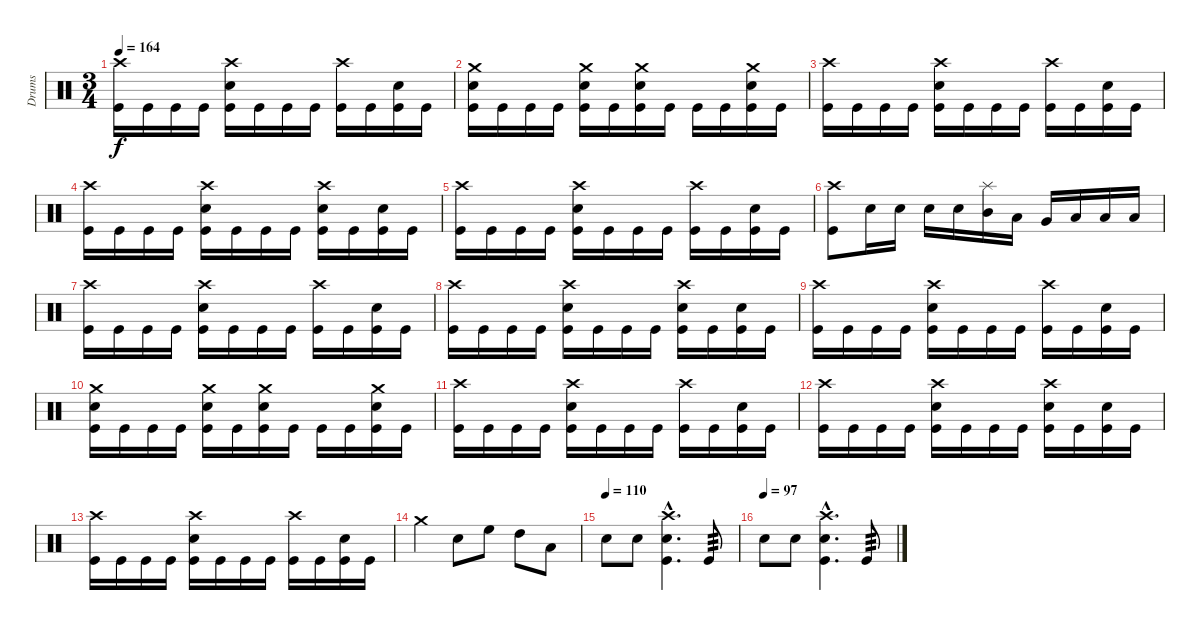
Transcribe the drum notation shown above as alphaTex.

\track ("Drums" "Drums") {instrument percussion}
\staff {score}
\articulation defaults
\ts (3 4)
\tempo 164
\clef neutral
\ks c
("Crash high (hit)" "Kick (hit)").16{dy f} "Kick (hit)".16 "Kick (hit)".16 "Kick (hit)".16 ("Crash high (hit)" "Snare (hit) 2" "Kick (hit)").16 "Kick (hit)".16 "Kick (hit)".16 "Kick (hit)".16 ("Crash high (hit)" "Kick (hit)").16 "Kick (hit)".16 ("Snare (hit) 2" "Kick (hit)").16 "Kick (hit)".16 |
("Crash medium (hit)" "Snare (hit) 2" "Kick (hit)").16 "Kick (hit)".16 "Kick (hit)".16 "Kick (hit)".16 ("Crash medium (hit)" "Snare (hit) 2" "Kick (hit)").16 "Kick (hit)".16 ("Crash medium (hit)" "Snare (hit) 2" "Kick (hit)").16 "Kick (hit)".16 "Kick (hit)".16 "Kick (hit)".16 ("Crash medium (hit)" "Snare (hit) 2" "Kick (hit)").16 "Kick (hit)".16 |
("Crash high (hit)" "Kick (hit)").16 "Kick (hit)".16 "Kick (hit)".16 "Kick (hit)".16 ("Crash high (hit)" "Snare (hit) 2" "Kick (hit)").16 "Kick (hit)".16 "Kick (hit)".16 "Kick (hit)".16 ("Crash high (hit)" "Kick (hit)").16 "Kick (hit)".16 ("Snare (hit) 2" "Kick (hit)").16 "Kick (hit)".16 |
("Crash high (hit)" "Kick (hit)").16 "Kick (hit)".16 "Kick (hit)".16 "Kick (hit)".16 ("Crash high (hit)" "Snare (hit) 2" "Kick (hit)").16 "Kick (hit)".16 "Kick (hit)".16 "Kick (hit)".16 ("Crash high (hit)" "Snare (hit) 2" "Kick (hit)").16 "Kick (hit)".16 ("Snare (hit) 2" "Kick (hit)").16 "Kick (hit)".16 |
("Crash high (hit)" "Kick (hit)").16 "Kick (hit)".16 "Kick (hit)".16 "Kick (hit)".16 ("Crash high (hit)" "Snare (hit) 2" "Kick (hit)").16 "Kick (hit)".16 "Kick (hit)".16 "Kick (hit)".16 ("Crash high (hit)" "Kick (hit)").16 "Kick (hit)".16 ("Snare (hit) 2" "Kick (hit)").16 "Kick (hit)".16 |
("Crash high (hit)" "Kick (hit)").8 "Snare (hit) 2".16 "Snare (hit) 2".16 "Snare (hit) 2".16 "Snare (hit) 2".16 ("Splash (hit)" "Mid Tom (hit)").16 "Low Tom (hit)".16 "Very Low Tom (hit)".16 "Low Floor Tom (hit)".16 "Low Floor Tom (hit)".16 "Low Floor Tom (hit)".16 |
("Crash high (hit)" "Kick (hit)").16 "Kick (hit)".16 "Kick (hit)".16 "Kick (hit)".16 ("Crash high (hit)" "Snare (hit) 2" "Kick (hit)").16 "Kick (hit)".16 "Kick (hit)".16 "Kick (hit)".16 ("Crash high (hit)" "Kick (hit)").16 "Kick (hit)".16 ("Snare (hit) 2" "Kick (hit)").16 "Kick (hit)".16 |
("Crash high (hit)" "Kick (hit)").16 "Kick (hit)".16 "Kick (hit)".16 "Kick (hit)".16 ("Crash high (hit)" "Snare (hit) 2" "Kick (hit)").16 "Kick (hit)".16 "Kick (hit)".16 "Kick (hit)".16 ("Crash high (hit)" "Snare (hit) 2" "Kick (hit)").16 "Kick (hit)".16 ("Snare (hit) 2" "Kick (hit)").16 "Kick (hit)".16 |
("Crash high (hit)" "Kick (hit)").16 "Kick (hit)".16 "Kick (hit)".16 "Kick (hit)".16 ("Crash high (hit)" "Snare (hit) 2" "Kick (hit)").16 "Kick (hit)".16 "Kick (hit)".16 "Kick (hit)".16 ("Crash high (hit)" "Kick (hit)").16 "Kick (hit)".16 ("Snare (hit) 2" "Kick (hit)").16 "Kick (hit)".16 |
("Crash medium (hit)" "Snare (hit) 2" "Kick (hit)").16 "Kick (hit)".16 "Kick (hit)".16 "Kick (hit)".16 ("Crash medium (hit)" "Snare (hit) 2" "Kick (hit)").16 "Kick (hit)".16 ("Crash medium (hit)" "Snare (hit) 2" "Kick (hit)").16 "Kick (hit)".16 "Kick (hit)".16 "Kick (hit)".16 ("Crash medium (hit)" "Snare (hit) 2" "Kick (hit)").16 "Kick (hit)".16 |
("Crash high (hit)" "Kick (hit)").16 "Kick (hit)".16 "Kick (hit)".16 "Kick (hit)".16 ("Crash high (hit)" "Snare (hit) 2" "Kick (hit)").16 "Kick (hit)".16 "Kick (hit)".16 "Kick (hit)".16 ("Crash high (hit)" "Kick (hit)").16 "Kick (hit)".16 ("Snare (hit) 2" "Kick (hit)").16 "Kick (hit)".16 |
("Crash high (hit)" "Kick (hit)").16 "Kick (hit)".16 "Kick (hit)".16 "Kick (hit)".16 ("Crash high (hit)" "Snare (hit) 2" "Kick (hit)").16 "Kick (hit)".16 "Kick (hit)".16 "Kick (hit)".16 ("Crash high (hit)" "Snare (hit) 2" "Kick (hit)").16 "Kick (hit)".16 ("Snare (hit) 2" "Kick (hit)").16 "Kick (hit)".16 |
("Crash high (hit)" "Kick (hit)").16 "Kick (hit)".16 "Kick (hit)".16 "Kick (hit)".16 ("Crash high (hit)" "Snare (hit) 2" "Kick (hit)").16 "Kick (hit)".16 "Kick (hit)".16 "Kick (hit)".16 ("Crash high (hit)" "Kick (hit)").16 "Kick (hit)".16 ("Snare (hit) 2" "Kick (hit)").16 "Kick (hit)".16 |
"Crash medium (hit)".4 "Snare (hit) 2".8 "High Floor Tom (hit)".8 "High Tom (hit)".8 "Low Tom (hit)".8 |
\tempo (110)
"Snare (hit) 2".8 "Snare (hit) 2".8 ("Crash high (hit)"{hac} "Snare (hit) 2"{hac} "Kick (hit)"{hac}).4{d} "Kick (hit)".8{tp 3} |
\tempo (97)
"Snare (hit) 2".8 "Snare (hit) 2".8 ("Crash high (hit)"{hac} "Snare (hit) 2"{hac} "Kick (hit)"{hac}).4{d} "Kick (hit)".8{tp 3}
